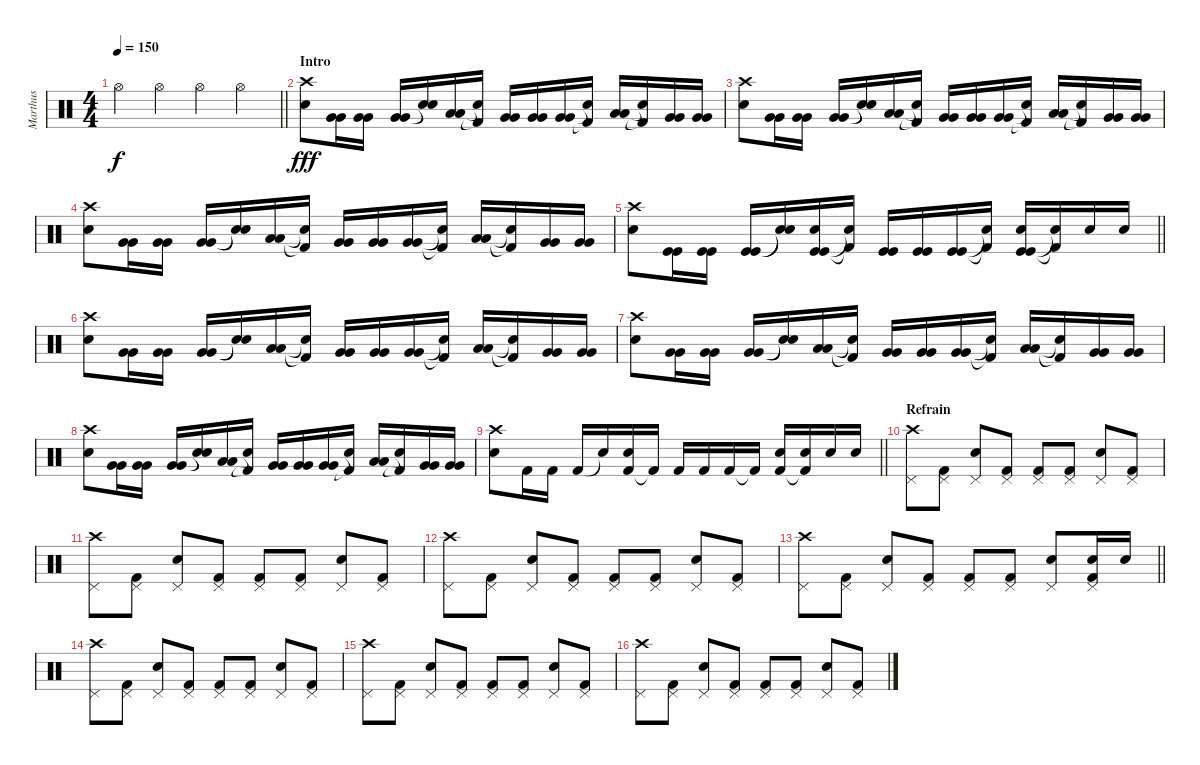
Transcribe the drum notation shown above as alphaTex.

\track ("Marthus" "Marthus") {instrument percussion}
\staff {score}
\articulation defaults
\ts (4 4)
\tempo 150
\clef neutral
\barLineRight lightlight
\ks c "Hi-Hat (open)".4{dy f} "Hi-Hat (open)".4 "Hi-Hat (open)".4 "Hi-Hat (open)".4
|
\section ("" "Intro")
("Electric Snare (hit)" "Crash high (hit)").8{dy fff} ("Very Low Tom (hit)" "Very Low Tom (hit)").16 ("Very Low Tom (hit)" "Very Low Tom (hit)").16 ("Very Low Tom (hit)" "Very Low Tom (hit)").16 ("Snare (hit)"{t} "Snare (hit)"{t}).16 ("Low Tom (hit)" "Low Tom (hit)").16 ("Kick (hit) 2"{t} "Snare (hit)"{t}).16 ("Very Low Tom (hit)" "Very Low Tom (hit)").16 ("Very Low Tom (hit)" "Very Low Tom (hit)").16 ("Very Low Tom (hit)" "Very Low Tom (hit)").16 ("Kick (hit) 2"{t} "Snare (hit)"{t}).16 ("Low Tom (hit)" "Low Tom (hit)").16 ("Kick (hit) 2"{t} "Snare (hit)"{t}).16 ("Very Low Tom (hit)" "Very Low Tom (hit)").16 ("Very Low Tom (hit)" "Very Low Tom (hit)").16 |
("Electric Snare (hit)" "Crash high (hit)").8 ("Very Low Tom (hit)" "Very Low Tom (hit)").16 ("Very Low Tom (hit)" "Very Low Tom (hit)").16 ("Very Low Tom (hit)" "Very Low Tom (hit)").16 ("Snare (hit)"{t} "Snare (hit)"{t}).16 ("Low Tom (hit)" "Low Tom (hit)").16 ("Kick (hit) 2"{t} "Snare (hit)"{t}).16 ("Very Low Tom (hit)" "Very Low Tom (hit)").16 ("Very Low Tom (hit)" "Very Low Tom (hit)").16 ("Very Low Tom (hit)" "Very Low Tom (hit)").16 ("Kick (hit) 2"{t} "Snare (hit)"{t}).16 ("Low Tom (hit)" "Low Tom (hit)").16 ("Kick (hit) 2"{t} "Snare (hit)"{t}).16 ("Very Low Tom (hit)" "Very Low Tom (hit)").16 ("Very Low Tom (hit)" "Very Low Tom (hit)").16 |
("Electric Snare (hit)" "Crash high (hit)").8 ("Very Low Tom (hit)" "Very Low Tom (hit)").16 ("Very Low Tom (hit)" "Very Low Tom (hit)").16 ("Very Low Tom (hit)" "Very Low Tom (hit)").16 ("Snare (hit)"{t} "Snare (hit)"{t}).16 ("Low Tom (hit)" "Low Tom (hit)").16 ("Kick (hit) 2"{t} "Snare (hit)"{t}).16 ("Very Low Tom (hit)" "Very Low Tom (hit)").16 ("Very Low Tom (hit)" "Very Low Tom (hit)").16 ("Very Low Tom (hit)" "Very Low Tom (hit)").16 ("Kick (hit) 2"{t} "Snare (hit)"{t}).16 ("Low Tom (hit)" "Low Tom (hit)").16 ("Kick (hit) 2"{t} "Snare (hit)"{t}).16 ("Very Low Tom (hit)" "Very Low Tom (hit)").16 ("Very Low Tom (hit)" "Very Low Tom (hit)").16 |
\barLineRight lightlight
("Electric Snare (hit)" "Crash high (hit)").8 ("Kick (hit)" "Kick (hit)").16 ("Kick (hit)" "Kick (hit)").16 ("Kick (hit)" "Kick (hit)").16 ("Snare (hit)"{t} "Snare (hit)"{t}).16 ("Kick (hit)" "Kick (hit)" "Electric Snare (hit)").16 ("Kick (hit) 2"{t} "Snare (hit)"{t}).16 ("Kick (hit)" "Kick (hit)").16 ("Kick (hit)" "Kick (hit)").16 ("Kick (hit)" "Kick (hit)").16 ("Kick (hit) 2"{t} "Snare (hit)"{t}).16 ("Kick (hit)" "Kick (hit)" "Electric Snare (hit)").16 ("Kick (hit) 2"{t} "Snare (hit)"{t}).16 "Electric Snare (hit)".16 "Electric Snare (hit)".16 |
("Electric Snare (hit)" "Crash high (hit)").8 ("Very Low Tom (hit)" "Very Low Tom (hit)").16 ("Very Low Tom (hit)" "Very Low Tom (hit)").16 ("Very Low Tom (hit)" "Very Low Tom (hit)").16 ("Snare (hit)"{t} "Snare (hit)"{t}).16 ("Low Tom (hit)" "Low Tom (hit)").16 ("Kick (hit) 2"{t} "Snare (hit)"{t}).16 ("Very Low Tom (hit)" "Very Low Tom (hit)").16 ("Very Low Tom (hit)" "Very Low Tom (hit)").16 ("Very Low Tom (hit)" "Very Low Tom (hit)").16 ("Kick (hit) 2"{t} "Snare (hit)"{t}).16 ("Low Tom (hit)" "Low Tom (hit)").16 ("Kick (hit) 2"{t} "Snare (hit)"{t}).16 ("Very Low Tom (hit)" "Very Low Tom (hit)").16 ("Very Low Tom (hit)" "Very Low Tom (hit)").16 |
("Electric Snare (hit)" "Crash high (hit)").8 ("Very Low Tom (hit)" "Very Low Tom (hit)").16 ("Very Low Tom (hit)" "Very Low Tom (hit)").16 ("Very Low Tom (hit)" "Very Low Tom (hit)").16 ("Snare (hit)"{t} "Snare (hit)"{t}).16 ("Low Tom (hit)" "Low Tom (hit)").16 ("Kick (hit) 2"{t} "Snare (hit)"{t}).16 ("Very Low Tom (hit)" "Very Low Tom (hit)").16 ("Very Low Tom (hit)" "Very Low Tom (hit)").16 ("Very Low Tom (hit)" "Very Low Tom (hit)").16 ("Kick (hit) 2"{t} "Snare (hit)"{t}).16 ("Low Tom (hit)" "Low Tom (hit)").16 ("Kick (hit) 2"{t} "Snare (hit)"{t}).16 ("Very Low Tom (hit)" "Very Low Tom (hit)").16 ("Very Low Tom (hit)" "Very Low Tom (hit)").16 |
("Electric Snare (hit)" "Crash high (hit)").8 ("Very Low Tom (hit)" "Very Low Tom (hit)").16 ("Very Low Tom (hit)" "Very Low Tom (hit)").16 ("Very Low Tom (hit)" "Very Low Tom (hit)").16 ("Snare (hit)"{t} "Snare (hit)"{t}).16 ("Low Tom (hit)" "Low Tom (hit)").16 ("Kick (hit) 2"{t} "Snare (hit)"{t}).16 ("Very Low Tom (hit)" "Very Low Tom (hit)").16 ("Very Low Tom (hit)" "Very Low Tom (hit)").16 ("Very Low Tom (hit)" "Very Low Tom (hit)").16 ("Kick (hit) 2"{t} "Snare (hit)"{t}).16 ("Low Tom (hit)" "Low Tom (hit)").16 ("Kick (hit) 2"{t} "Snare (hit)"{t}).16 ("Very Low Tom (hit)" "Very Low Tom (hit)").16 ("Very Low Tom (hit)" "Very Low Tom (hit)").16 |
\barLineRight lightlight
("Electric Snare (hit)" "Crash high (hit)").8 "Kick (hit) 2".16 "Kick (hit) 2".16 "Kick (hit) 2".16 "Snare (hit)"{t}.16 ("Kick (hit) 2" "Electric Snare (hit)").16 "Kick (hit) 2"{t}.16 "Kick (hit) 2".16 "Kick (hit) 2".16 "Kick (hit) 2".16 "Kick (hit) 2"{t}.16 ("Kick (hit) 2" "Electric Snare (hit)").16 ("Kick (hit) 2"{t} "Electric Snare (hit)").16 "Snare (hit) 2".16 "Snare (hit) 2".16 |
\section ("" "Refrain")
("Crash high (hit)" "Pedal Hi-Hat (hit)").8 ("Kick (hit) 2" "Pedal Hi-Hat (hit)").8 ("Electric Snare (hit)" "Pedal Hi-Hat (hit)").8 ("Kick (hit) 2" "Pedal Hi-Hat (hit)").8 ("Kick (hit) 2" "Pedal Hi-Hat (hit)").8 ("Kick (hit) 2" "Pedal Hi-Hat (hit)").8 ("Electric Snare (hit)" "Pedal Hi-Hat (hit)").8 ("Kick (hit) 2" "Pedal Hi-Hat (hit)").8 |
("Crash high (hit)" "Pedal Hi-Hat (hit)").8 ("Kick (hit) 2" "Pedal Hi-Hat (hit)").8 ("Electric Snare (hit)" "Pedal Hi-Hat (hit)").8 ("Kick (hit) 2" "Pedal Hi-Hat (hit)").8 ("Kick (hit) 2" "Pedal Hi-Hat (hit)").8 ("Kick (hit) 2" "Pedal Hi-Hat (hit)").8 ("Electric Snare (hit)" "Pedal Hi-Hat (hit)").8 ("Kick (hit) 2" "Pedal Hi-Hat (hit)").8 |
("Crash high (hit)" "Pedal Hi-Hat (hit)").8 ("Kick (hit) 2" "Pedal Hi-Hat (hit)").8 ("Electric Snare (hit)" "Pedal Hi-Hat (hit)").8 ("Kick (hit) 2" "Pedal Hi-Hat (hit)").8 ("Kick (hit) 2" "Pedal Hi-Hat (hit)").8 ("Kick (hit) 2" "Pedal Hi-Hat (hit)").8 ("Electric Snare (hit)" "Pedal Hi-Hat (hit)").8 ("Kick (hit) 2" "Pedal Hi-Hat (hit)").8 |
\barLineRight lightlight
("Crash high (hit)" "Pedal Hi-Hat (hit)").8 ("Kick (hit) 2" "Pedal Hi-Hat (hit)").8 ("Electric Snare (hit)" "Pedal Hi-Hat (hit)").8 ("Kick (hit) 2" "Pedal Hi-Hat (hit)").8 ("Kick (hit) 2" "Pedal Hi-Hat (hit)").8 ("Kick (hit) 2" "Pedal Hi-Hat (hit)").8 ("Electric Snare (hit)" "Pedal Hi-Hat (hit)").8 ("Kick (hit) 2" "Electric Snare (hit)" "Pedal Hi-Hat (hit)").16 "Electric Snare (hit)".16 |
("Crash high (hit)" "Pedal Hi-Hat (hit)").8 ("Kick (hit) 2" "Pedal Hi-Hat (hit)").8 ("Electric Snare (hit)" "Pedal Hi-Hat (hit)").8 ("Kick (hit) 2" "Pedal Hi-Hat (hit)").8 ("Kick (hit) 2" "Pedal Hi-Hat (hit)").8 ("Kick (hit) 2" "Pedal Hi-Hat (hit)").8 ("Electric Snare (hit)" "Pedal Hi-Hat (hit)").8 ("Kick (hit) 2" "Pedal Hi-Hat (hit)").8 |
("Crash high (hit)" "Pedal Hi-Hat (hit)").8 ("Kick (hit) 2" "Pedal Hi-Hat (hit)").8 ("Electric Snare (hit)" "Pedal Hi-Hat (hit)").8 ("Kick (hit) 2" "Pedal Hi-Hat (hit)").8 ("Kick (hit) 2" "Pedal Hi-Hat (hit)").8 ("Kick (hit) 2" "Pedal Hi-Hat (hit)").8 ("Electric Snare (hit)" "Pedal Hi-Hat (hit)").8 ("Kick (hit) 2" "Pedal Hi-Hat (hit)").8 |
("Crash high (hit)" "Pedal Hi-Hat (hit)").8 ("Kick (hit) 2" "Pedal Hi-Hat (hit)").8 ("Electric Snare (hit)" "Pedal Hi-Hat (hit)").8 ("Kick (hit) 2" "Pedal Hi-Hat (hit)").8 ("Kick (hit) 2" "Pedal Hi-Hat (hit)").8 ("Kick (hit) 2" "Pedal Hi-Hat (hit)").8 ("Electric Snare (hit)" "Pedal Hi-Hat (hit)").8 ("Kick (hit) 2" "Pedal Hi-Hat (hit)").8
